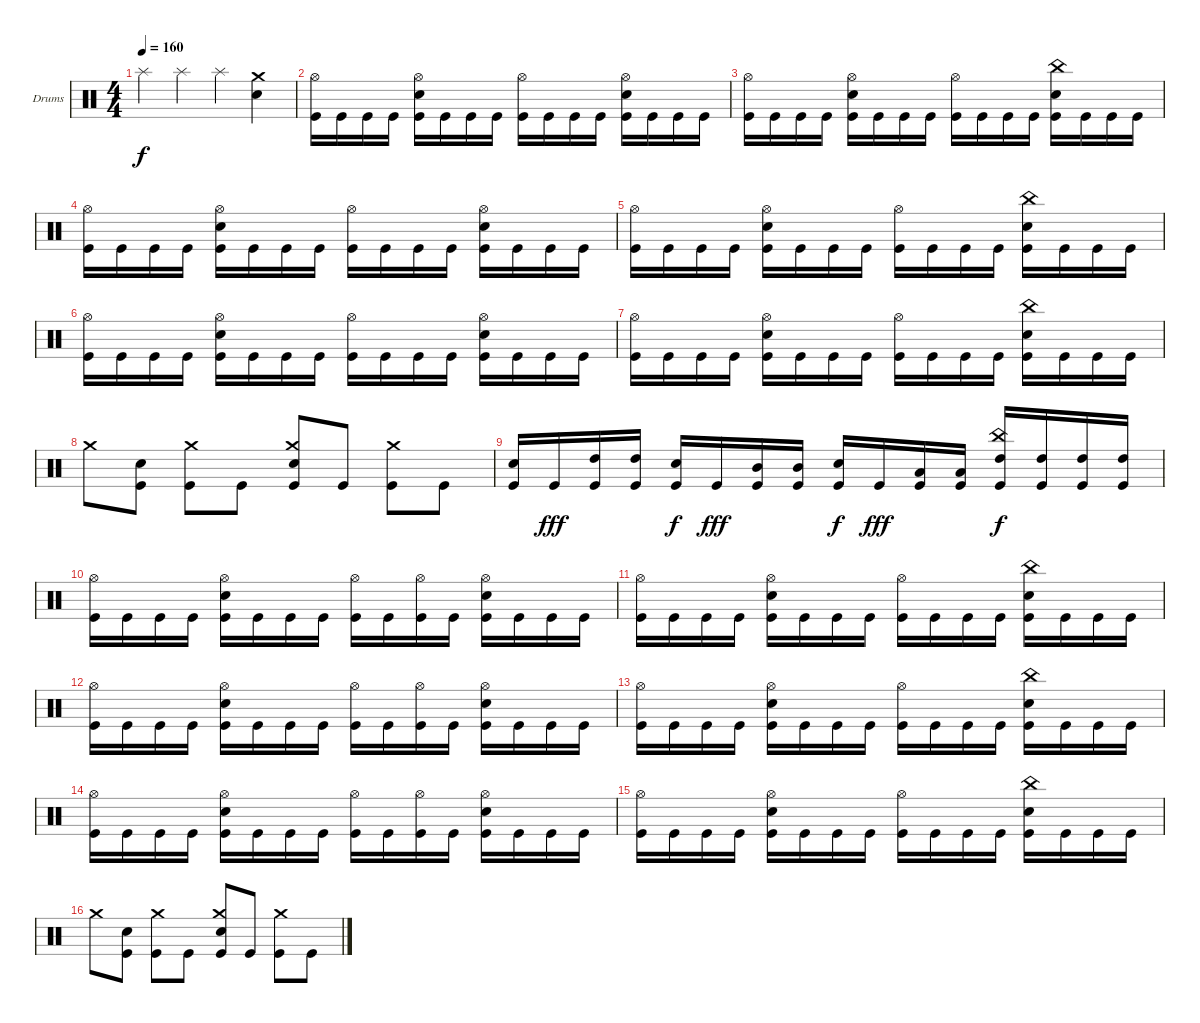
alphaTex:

\defaultSystemsLayout 4
\bracketExtendMode groupsimilarinstruments
\firstSystemTrackNameOrientation horizontal
\otherSystemsTrackNameOrientation horizontal
\track ("Drumkit" "Drums") {instrument percussion}
\staff {score}
\articulation defaults
\ts (4 4)
\tempo 160
\clef neutral
\ks c "Splash (hit)".4{dy f} "Splash (hit)".4 "Splash (hit)".4
("Snare (hit) 2" "Crash medium (hit)").4 |
("Kick (hit)" "Hi-Hat (open)").16 "Kick (hit)".16 "Kick (hit)".16 "Kick (hit)".16 ("Snare (hit) 2" "Kick (hit)" "Hi-Hat (open)").16 "Kick (hit)".16 "Kick (hit)".16 "Kick (hit)".16 ("Kick (hit)" "Hi-Hat (open)").16 "Kick (hit)".16 "Kick (hit)".16 "Kick (hit)".16 ("Snare (hit) 2" "Kick (hit)" "Hi-Hat (open)").16 "Kick (hit)".16 "Kick (hit)".16 "Kick (hit)".16 |
("Kick (hit)" "Hi-Hat (open)").16 "Kick (hit)".16 "Kick (hit)".16 "Kick (hit)".16 ("Snare (hit) 2" "Kick (hit)" "Hi-Hat (open)").16 "Kick (hit)".16 "Kick (hit)".16 "Kick (hit)".16 ("Kick (hit)" "Hi-Hat (open)").16 "Kick (hit)".16 "Kick (hit)".16 "Kick (hit)".16 ("Snare (hit) 2" "Kick (hit)" "China (hit)").16 "Kick (hit)".16 "Kick (hit)".16 "Kick (hit)".16 |
("Kick (hit)" "Hi-Hat (open)").16 "Kick (hit)".16 "Kick (hit)".16 "Kick (hit)".16 ("Snare (hit) 2" "Kick (hit)" "Hi-Hat (open)").16 "Kick (hit)".16 "Kick (hit)".16 "Kick (hit)".16 ("Kick (hit)" "Hi-Hat (open)").16 "Kick (hit)".16 "Kick (hit)".16 "Kick (hit)".16 ("Snare (hit) 2" "Kick (hit)" "Hi-Hat (open)").16 "Kick (hit)".16 "Kick (hit)".16 "Kick (hit)".16 |
("Kick (hit)" "Hi-Hat (open)").16 "Kick (hit)".16 "Kick (hit)".16 "Kick (hit)".16 ("Snare (hit) 2" "Kick (hit)" "Hi-Hat (open)").16 "Kick (hit)".16 "Kick (hit)".16 "Kick (hit)".16 ("Kick (hit)" "Hi-Hat (open)").16 "Kick (hit)".16 "Kick (hit)".16 "Kick (hit)".16 ("Snare (hit) 2" "Kick (hit)" "China (hit)").16 "Kick (hit)".16 "Kick (hit)".16 "Kick (hit)".16 |
("Kick (hit)" "Hi-Hat (open)").16 "Kick (hit)".16 "Kick (hit)".16 "Kick (hit)".16 ("Snare (hit) 2" "Kick (hit)" "Hi-Hat (open)").16 "Kick (hit)".16 "Kick (hit)".16 "Kick (hit)".16 ("Kick (hit)" "Hi-Hat (open)").16 "Kick (hit)".16 "Kick (hit)".16 "Kick (hit)".16 ("Snare (hit) 2" "Kick (hit)" "Hi-Hat (open)").16 "Kick (hit)".16 "Kick (hit)".16 "Kick (hit)".16 |
("Kick (hit)" "Hi-Hat (open)").16 "Kick (hit)".16 "Kick (hit)".16 "Kick (hit)".16 ("Snare (hit) 2" "Kick (hit)" "Hi-Hat (open)").16 "Kick (hit)".16 "Kick (hit)".16 "Kick (hit)".16 ("Kick (hit)" "Hi-Hat (open)").16 "Kick (hit)".16 "Kick (hit)".16 "Kick (hit)".16 ("Snare (hit) 2" "Kick (hit)" "China (hit)").16 "Kick (hit)".16 "Kick (hit)".16 "Kick (hit)".16 |
"Crash medium (hit)".8 ("Snare (hit) 2" "Kick (hit)").8 ("Crash medium (hit)" "Kick (hit)").8 "Kick (hit)".8 ("Crash medium (hit)" "Snare (hit) 2" "Kick (hit)").8 "Kick (hit)".8 ("Crash medium (hit)" "Kick (hit)").8 "Kick (hit)".8 |
("Snare (hit) 2" "Kick (hit)").16 "Kick (hit)".16{dy fff} ("High Tom (hit)" "Kick (hit)").16 ("High Tom (hit)" "Kick (hit)").16 ("Snare (hit) 2" "Kick (hit)").16{dy f} "Kick (hit)".16{dy fff} ("Mid Tom (hit)" "Kick (hit)").16 ("Mid Tom (hit)" "Kick (hit)").16 ("Snare (hit) 2" "Kick (hit)").16{dy f} "Kick (hit)".16{dy fff} ("Low Tom (hit)" "Kick (hit)").16 ("Low Tom (hit)" "Kick (hit)").16 ("High Tom (hit)" "Kick (hit)" "China (hit)").16{dy f} ("High Tom (hit)" "Kick (hit)").16 ("High Tom (hit)" "Kick (hit)").16 ("High Tom (hit)" "Kick (hit)").16 |
("Kick (hit)" "Hi-Hat (open)").16 "Kick (hit)".16 "Kick (hit)".16 "Kick (hit)".16 ("Snare (hit) 2" "Kick (hit)" "Hi-Hat (open)").16 "Kick (hit)".16 "Kick (hit)".16 "Kick (hit)".16 ("Kick (hit)" "Hi-Hat (open)").16 "Kick (hit)".16 ("Kick (hit)" "Hi-Hat (open)").16 "Kick (hit)".16 ("Snare (hit) 2" "Kick (hit)" "Hi-Hat (open)").16 "Kick (hit)".16 "Kick (hit)".16 "Kick (hit)".16 |
("Kick (hit)" "Hi-Hat (open)").16 "Kick (hit)".16 "Kick (hit)".16 "Kick (hit)".16 ("Snare (hit) 2" "Kick (hit)" "Hi-Hat (open)").16 "Kick (hit)".16 "Kick (hit)".16 "Kick (hit)".16 ("Kick (hit)" "Hi-Hat (open)").16 "Kick (hit)".16 "Kick (hit)".16 "Kick (hit)".16 ("Snare (hit) 2" "Kick (hit)" "China (hit)").16 "Kick (hit)".16 "Kick (hit)".16 "Kick (hit)".16 |
("Kick (hit)" "Hi-Hat (open)").16 "Kick (hit)".16 "Kick (hit)".16 "Kick (hit)".16 ("Snare (hit) 2" "Kick (hit)" "Hi-Hat (open)").16 "Kick (hit)".16 "Kick (hit)".16 "Kick (hit)".16 ("Kick (hit)" "Hi-Hat (open)").16 "Kick (hit)".16 ("Kick (hit)" "Hi-Hat (open)").16 "Kick (hit)".16 ("Snare (hit) 2" "Kick (hit)" "Hi-Hat (open)").16 "Kick (hit)".16 "Kick (hit)".16 "Kick (hit)".16 |
("Kick (hit)" "Hi-Hat (open)").16 "Kick (hit)".16 "Kick (hit)".16 "Kick (hit)".16 ("Snare (hit) 2" "Kick (hit)" "Hi-Hat (open)").16 "Kick (hit)".16 "Kick (hit)".16 "Kick (hit)".16 ("Kick (hit)" "Hi-Hat (open)").16 "Kick (hit)".16 "Kick (hit)".16 "Kick (hit)".16 ("Snare (hit) 2" "Kick (hit)" "China (hit)").16 "Kick (hit)".16 "Kick (hit)".16 "Kick (hit)".16 |
("Kick (hit)" "Hi-Hat (open)").16 "Kick (hit)".16 "Kick (hit)".16 "Kick (hit)".16 ("Snare (hit) 2" "Kick (hit)" "Hi-Hat (open)").16 "Kick (hit)".16 "Kick (hit)".16 "Kick (hit)".16 ("Kick (hit)" "Hi-Hat (open)").16 "Kick (hit)".16 ("Kick (hit)" "Hi-Hat (open)").16 "Kick (hit)".16 ("Snare (hit) 2" "Kick (hit)" "Hi-Hat (open)").16 "Kick (hit)".16 "Kick (hit)".16 "Kick (hit)".16 |
("Kick (hit)" "Hi-Hat (open)").16 "Kick (hit)".16 "Kick (hit)".16 "Kick (hit)".16 ("Snare (hit) 2" "Kick (hit)" "Hi-Hat (open)").16 "Kick (hit)".16 "Kick (hit)".16 "Kick (hit)".16 ("Kick (hit)" "Hi-Hat (open)").16 "Kick (hit)".16 "Kick (hit)".16 "Kick (hit)".16 ("Snare (hit) 2" "Kick (hit)" "China (hit)").16 "Kick (hit)".16 "Kick (hit)".16 "Kick (hit)".16 |
"Crash medium (hit)".8 ("Snare (hit) 2" "Kick (hit)").8 ("Crash medium (hit)" "Kick (hit)").8 "Kick (hit)".8 ("Crash medium (hit)" "Snare (hit) 2" "Kick (hit)").8 "Kick (hit)".8 ("Crash medium (hit)" "Kick (hit)").8 "Kick (hit)".8
